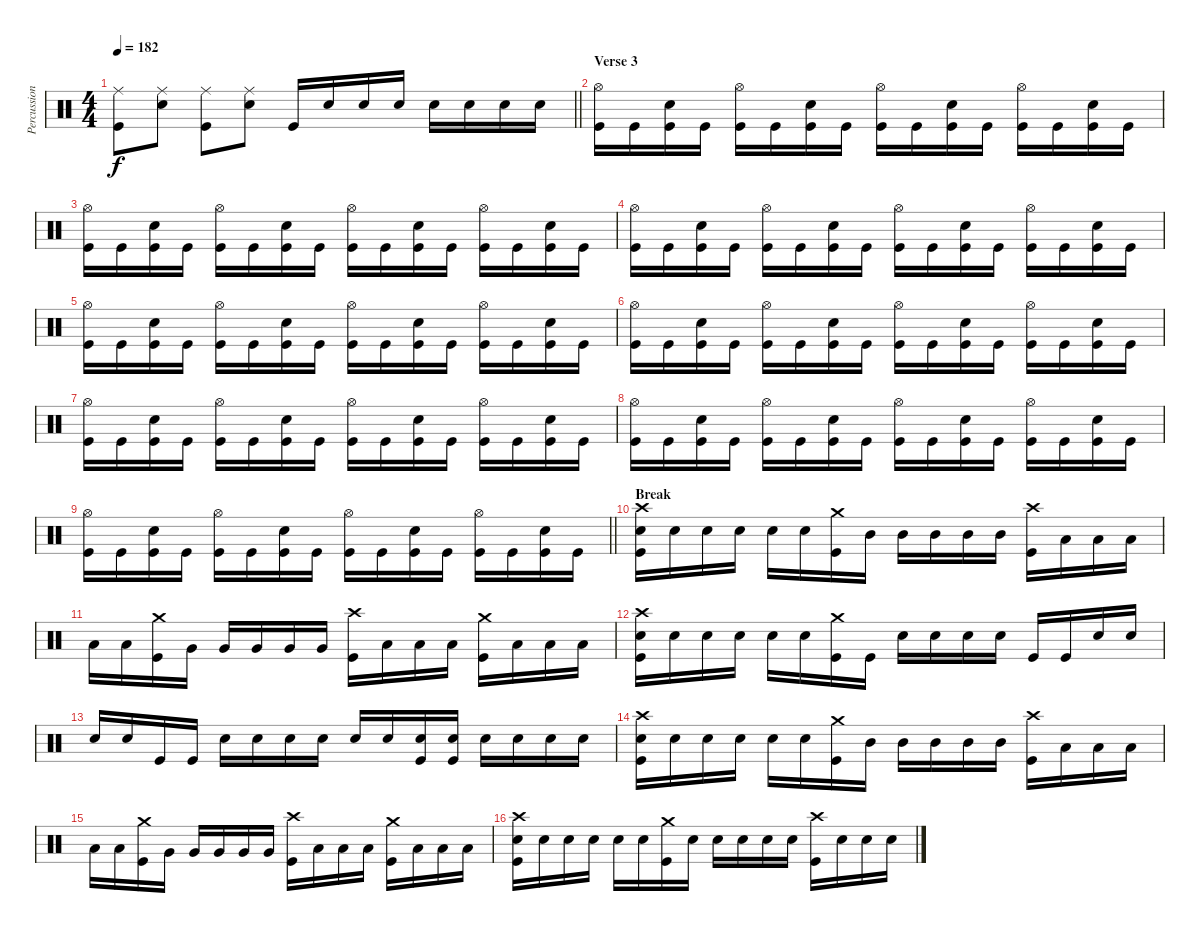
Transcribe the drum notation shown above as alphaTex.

\track ("Percussion" "Percussion") {instrument percussion}
\staff {score}
\articulation defaults
\ts (4 4)
\tempo 182
\clef neutral
\barLineRight lightlight
\ks c
("Ride (middle)" "Kick (hit)").8{dy f} ("Ride (middle)" "Snare (hit) 2").8 ("Ride (middle)" "Kick (hit)").8 ("Ride (middle)" "Snare (hit) 2").8 "Kick (hit)".16 "Snare (hit) 2".16 "Snare (hit) 2".16 "Snare (hit) 2".16 "Snare (hit) 2".16 "Snare (hit) 2".16 "Snare (hit) 2".16 "Snare (hit) 2".16 |
\section ("" "Verse 3")
("Hi-Hat (open)" "Kick (hit)").16 "Kick (hit)".16 ("Snare (hit) 2" "Kick (hit)").16 "Kick (hit)".16 ("Hi-Hat (open)" "Kick (hit)").16 "Kick (hit)".16 ("Snare (hit) 2" "Kick (hit)").16 "Kick (hit)".16 ("Hi-Hat (open)" "Kick (hit)").16 "Kick (hit)".16 ("Snare (hit) 2" "Kick (hit)").16 "Kick (hit)".16 ("Hi-Hat (open)" "Kick (hit)").16 "Kick (hit)".16 ("Snare (hit) 2" "Kick (hit)").16 "Kick (hit)".16 |
("Hi-Hat (open)" "Kick (hit)").16 "Kick (hit)".16 ("Snare (hit) 2" "Kick (hit)").16 "Kick (hit)".16 ("Hi-Hat (open)" "Kick (hit)").16 "Kick (hit)".16 ("Snare (hit) 2" "Kick (hit)").16 "Kick (hit)".16 ("Hi-Hat (open)" "Kick (hit)").16 "Kick (hit)".16 ("Snare (hit) 2" "Kick (hit)").16 "Kick (hit)".16 ("Hi-Hat (open)" "Kick (hit)").16 "Kick (hit)".16 ("Snare (hit) 2" "Kick (hit)").16 "Kick (hit)".16 |
("Hi-Hat (open)" "Kick (hit)").16 "Kick (hit)".16 ("Snare (hit) 2" "Kick (hit)").16 "Kick (hit)".16 ("Hi-Hat (open)" "Kick (hit)").16 "Kick (hit)".16 ("Snare (hit) 2" "Kick (hit)").16 "Kick (hit)".16 ("Hi-Hat (open)" "Kick (hit)").16 "Kick (hit)".16 ("Snare (hit) 2" "Kick (hit)").16 "Kick (hit)".16 ("Hi-Hat (open)" "Kick (hit)").16 "Kick (hit)".16 ("Snare (hit) 2" "Kick (hit)").16 "Kick (hit)".16 |
("Hi-Hat (open)" "Kick (hit)").16 "Kick (hit)".16 ("Snare (hit) 2" "Kick (hit)").16 "Kick (hit)".16 ("Hi-Hat (open)" "Kick (hit)").16 "Kick (hit)".16 ("Snare (hit) 2" "Kick (hit)").16 "Kick (hit)".16 ("Hi-Hat (open)" "Kick (hit)").16 "Kick (hit)".16 ("Snare (hit) 2" "Kick (hit)").16 "Kick (hit)".16 ("Hi-Hat (open)" "Kick (hit)").16 "Kick (hit)".16 ("Snare (hit) 2" "Kick (hit)").16 "Kick (hit)".16 |
("Hi-Hat (open)" "Kick (hit)").16 "Kick (hit)".16 ("Snare (hit) 2" "Kick (hit)").16 "Kick (hit)".16 ("Hi-Hat (open)" "Kick (hit)").16 "Kick (hit)".16 ("Snare (hit) 2" "Kick (hit)").16 "Kick (hit)".16 ("Hi-Hat (open)" "Kick (hit)").16 "Kick (hit)".16 ("Snare (hit) 2" "Kick (hit)").16 "Kick (hit)".16 ("Hi-Hat (open)" "Kick (hit)").16 "Kick (hit)".16 ("Snare (hit) 2" "Kick (hit)").16 "Kick (hit)".16 |
("Hi-Hat (open)" "Kick (hit)").16 "Kick (hit)".16 ("Snare (hit) 2" "Kick (hit)").16 "Kick (hit)".16 ("Hi-Hat (open)" "Kick (hit)").16 "Kick (hit)".16 ("Snare (hit) 2" "Kick (hit)").16 "Kick (hit)".16 ("Hi-Hat (open)" "Kick (hit)").16 "Kick (hit)".16 ("Snare (hit) 2" "Kick (hit)").16 "Kick (hit)".16 ("Hi-Hat (open)" "Kick (hit)").16 "Kick (hit)".16 ("Snare (hit) 2" "Kick (hit)").16 "Kick (hit)".16 |
("Hi-Hat (open)" "Kick (hit)").16 "Kick (hit)".16 ("Snare (hit) 2" "Kick (hit)").16 "Kick (hit)".16 ("Hi-Hat (open)" "Kick (hit)").16 "Kick (hit)".16 ("Snare (hit) 2" "Kick (hit)").16 "Kick (hit)".16 ("Hi-Hat (open)" "Kick (hit)").16 "Kick (hit)".16 ("Snare (hit) 2" "Kick (hit)").16 "Kick (hit)".16 ("Hi-Hat (open)" "Kick (hit)").16 "Kick (hit)".16 ("Snare (hit) 2" "Kick (hit)").16 "Kick (hit)".16 |
\barLineRight lightlight
("Hi-Hat (open)" "Kick (hit)").16 "Kick (hit)".16 ("Snare (hit) 2" "Kick (hit)").16 "Kick (hit)".16 ("Hi-Hat (open)" "Kick (hit)").16 "Kick (hit)".16 ("Snare (hit) 2" "Kick (hit)").16 "Kick (hit)".16 ("Hi-Hat (open)" "Kick (hit)").16 "Kick (hit)".16 ("Snare (hit) 2" "Kick (hit)").16 "Kick (hit)".16 ("Hi-Hat (open)" "Kick (hit)").16 "Kick (hit)".16 ("Snare (hit) 2" "Kick (hit)").16 "Kick (hit)".16 |
\section ("" "Break")
("Crash high (hit)" "Snare (hit) 2" "Kick (hit)").16 "Snare (hit) 2".16 "Snare (hit) 2".16 "Snare (hit) 2".16 "Snare (hit) 2".16 "Snare (hit) 2".16 ("Crash medium (hit)" "Kick (hit)").16 "Mid Tom (hit)".16 "Mid Tom (hit)".16 "Mid Tom (hit)".16 "Mid Tom (hit)".16 "Mid Tom (hit)".16 ("Crash high (hit)" "Kick (hit)").16 "Low Tom (hit)".16 "Low Tom (hit)".16 "Low Tom (hit)".16 |
"Low Tom (hit)".16 "Low Tom (hit)".16 ("Crash medium (hit)" "Kick (hit)").16 "Very Low Tom (hit)".16 "Very Low Tom (hit)".16 "Very Low Tom (hit)".16 "Very Low Tom (hit)".16 "Very Low Tom (hit)".16 ("Crash high (hit)" "Kick (hit)").16 "Low Floor Tom (hit)".16 "Low Floor Tom (hit)".16 "Low Floor Tom (hit)".16 ("Crash medium (hit)" "Kick (hit)").16 "Low Floor Tom (hit)".16 "Low Floor Tom (hit)".16 "Low Floor Tom (hit)".16 |
("Crash high (hit)" "Snare (hit) 2" "Kick (hit)").16 "Snare (hit) 2".16 "Snare (hit) 2".16 "Snare (hit) 2".16 "Snare (hit) 2".16 "Snare (hit) 2".16 ("Crash medium (hit)" "Kick (hit)").16 "Kick (hit)".16 "Snare (hit) 2".16 "Snare (hit) 2".16 "Snare (hit) 2".16 "Snare (hit) 2".16 "Kick (hit)".16 "Kick (hit)".16 "Snare (hit) 2".16 "Snare (hit) 2".16 |
"Snare (hit) 2".16 "Snare (hit) 2".16 "Kick (hit)".16 "Kick (hit)".16 "Snare (hit) 2".16 "Snare (hit) 2".16 "Snare (hit) 2".16 "Snare (hit) 2".16 "Snare (hit) 2".16 "Snare (hit) 2".16 ("Snare (hit) 2" "Kick (hit)").16 ("Snare (hit) 2" "Kick (hit)").16 "Snare (hit) 2".16 "Snare (hit) 2".16 "Snare (hit) 2".16 "Snare (hit) 2".16 |
("Crash high (hit)" "Snare (hit) 2" "Kick (hit)").16 "Snare (hit) 2".16 "Snare (hit) 2".16 "Snare (hit) 2".16 "Snare (hit) 2".16 "Snare (hit) 2".16 ("Crash medium (hit)" "Kick (hit)").16 "Mid Tom (hit)".16 "Mid Tom (hit)".16 "Mid Tom (hit)".16 "Mid Tom (hit)".16 "Mid Tom (hit)".16 ("Crash high (hit)" "Kick (hit)").16 "Low Tom (hit)".16 "Low Tom (hit)".16 "Low Tom (hit)".16 |
"Low Tom (hit)".16 "Low Tom (hit)".16 ("Crash medium (hit)" "Kick (hit)").16 "Very Low Tom (hit)".16 "Very Low Tom (hit)".16 "Very Low Tom (hit)".16 "Very Low Tom (hit)".16 "Very Low Tom (hit)".16 ("Crash high (hit)" "Kick (hit)").16 "Low Floor Tom (hit)".16 "Low Floor Tom (hit)".16 "Low Floor Tom (hit)".16 ("Crash medium (hit)" "Kick (hit)").16 "Low Floor Tom (hit)".16 "Low Floor Tom (hit)".16 "Low Floor Tom (hit)".16 |
("Crash high (hit)" "Snare (hit) 2" "Kick (hit)").16 "Snare (hit) 2".16 "Snare (hit) 2".16 "Snare (hit) 2".16 "Snare (hit) 2".16 "Snare (hit) 2".16 ("Crash medium (hit)" "Kick (hit)").16 "Snare (hit) 2".16 "Snare (hit) 2".16 "Snare (hit) 2".16 "Snare (hit) 2".16 "Snare (hit) 2".16 ("Crash high (hit)" "Kick (hit)").16 "Snare (hit) 2".16 "Snare (hit) 2".16 "Snare (hit) 2".16
